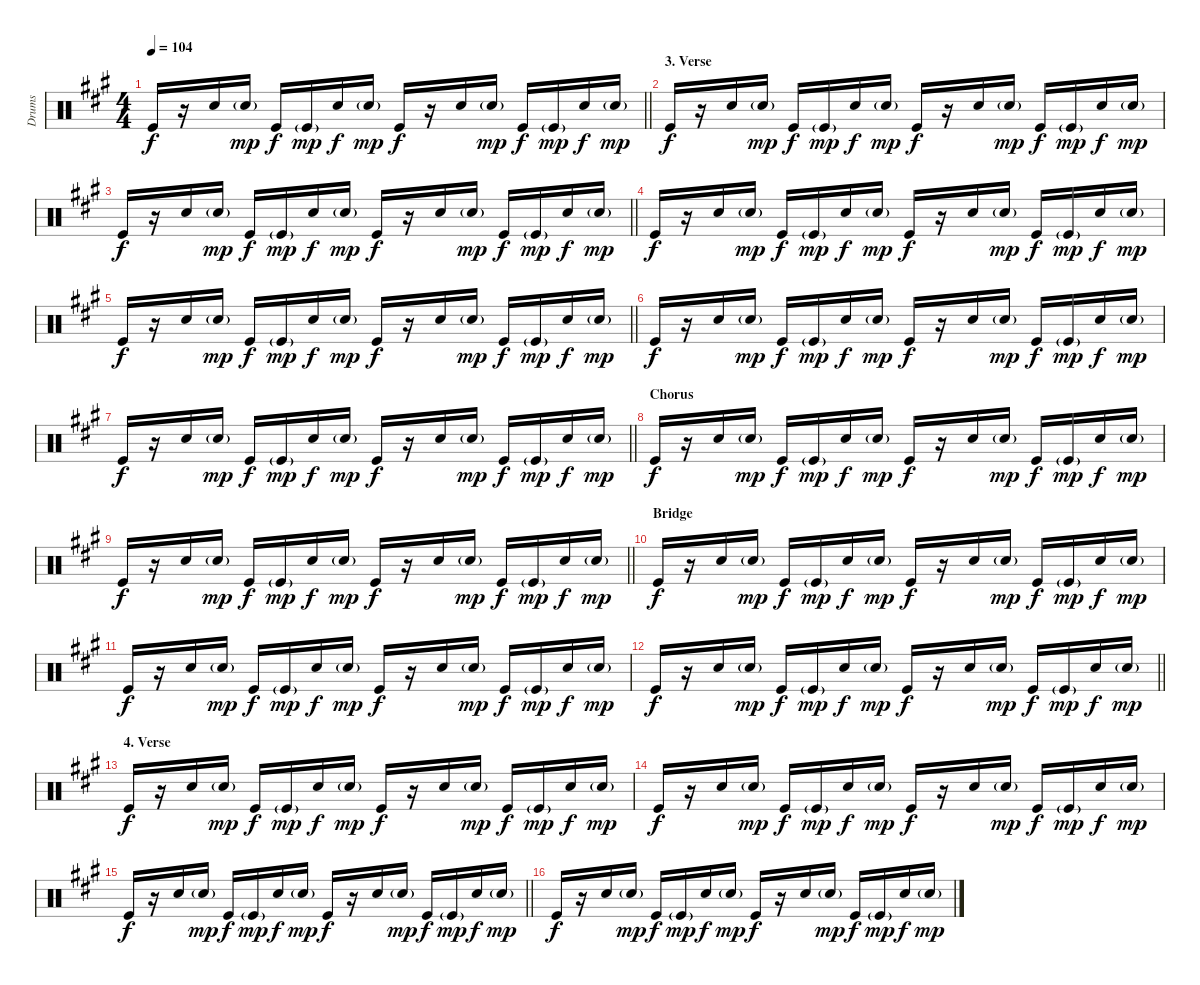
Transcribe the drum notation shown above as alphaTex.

\track ("Drums" "Drums") {instrument percussion}
\staff {score}
\articulation defaults
\ts (4 4)
\tempo 104
\clef neutral
\barLineRight lightlight
\ks a "Kick (hit)".16{dy f}
r.16 "Electric Snare (hit)".16 "Electric Snare (hit)"{g}.16{dy mp} "Kick (hit)".16{dy f} "Kick (hit)"{g}.16{dy mp} "Electric Snare (hit)".16{dy f} "Electric Snare (hit)"{g}.16{dy mp} "Kick (hit)".16{dy f} r.16 "Electric Snare (hit)".16 "Electric Snare (hit)"{g}.16{dy mp} "Kick (hit)".16{dy f} "Kick (hit)"{g}.16{dy mp} "Electric Snare (hit)".16{dy f} "Electric Snare (hit)"{g}.16{dy mp} |
\section ("" "3. Verse")
"Kick (hit)".16{dy f} r.16 "Electric Snare (hit)".16 "Electric Snare (hit)"{g}.16{dy mp} "Kick (hit)".16{dy f} "Kick (hit)"{g}.16{dy mp} "Electric Snare (hit)".16{dy f} "Electric Snare (hit)"{g}.16{dy mp} "Kick (hit)".16{dy f} r.16 "Electric Snare (hit)".16 "Electric Snare (hit)"{g}.16{dy mp} "Kick (hit)".16{dy f} "Kick (hit)"{g}.16{dy mp} "Electric Snare (hit)".16{dy f} "Electric Snare (hit)"{g}.16{dy mp} |
\barLineRight lightlight "Kick (hit)".16{dy f}
r.16 "Electric Snare (hit)".16 "Electric Snare (hit)"{g}.16{dy mp} "Kick (hit)".16{dy f} "Kick (hit)"{g}.16{dy mp} "Electric Snare (hit)".16{dy f} "Electric Snare (hit)"{g}.16{dy mp} "Kick (hit)".16{dy f} r.16 "Electric Snare (hit)".16 "Electric Snare (hit)"{g}.16{dy mp} "Kick (hit)".16{dy f} "Kick (hit)"{g}.16{dy mp} "Electric Snare (hit)".16{dy f} "Electric Snare (hit)"{g}.16{dy mp} |
"Kick (hit)".16{dy f} r.16 "Electric Snare (hit)".16 "Electric Snare (hit)"{g}.16{dy mp} "Kick (hit)".16{dy f} "Kick (hit)"{g}.16{dy mp} "Electric Snare (hit)".16{dy f} "Electric Snare (hit)"{g}.16{dy mp} "Kick (hit)".16{dy f} r.16 "Electric Snare (hit)".16 "Electric Snare (hit)"{g}.16{dy mp} "Kick (hit)".16{dy f} "Kick (hit)"{g}.16{dy mp} "Electric Snare (hit)".16{dy f} "Electric Snare (hit)"{g}.16{dy mp} |
\barLineRight lightlight "Kick (hit)".16{dy f}
r.16 "Electric Snare (hit)".16 "Electric Snare (hit)"{g}.16{dy mp} "Kick (hit)".16{dy f} "Kick (hit)"{g}.16{dy mp} "Electric Snare (hit)".16{dy f} "Electric Snare (hit)"{g}.16{dy mp} "Kick (hit)".16{dy f} r.16 "Electric Snare (hit)".16 "Electric Snare (hit)"{g}.16{dy mp} "Kick (hit)".16{dy f} "Kick (hit)"{g}.16{dy mp} "Electric Snare (hit)".16{dy f} "Electric Snare (hit)"{g}.16{dy mp} |
"Kick (hit)".16{dy f} r.16 "Electric Snare (hit)".16 "Electric Snare (hit)"{g}.16{dy mp} "Kick (hit)".16{dy f} "Kick (hit)"{g}.16{dy mp} "Electric Snare (hit)".16{dy f} "Electric Snare (hit)"{g}.16{dy mp} "Kick (hit)".16{dy f} r.16 "Electric Snare (hit)".16 "Electric Snare (hit)"{g}.16{dy mp} "Kick (hit)".16{dy f} "Kick (hit)"{g}.16{dy mp} "Electric Snare (hit)".16{dy f} "Electric Snare (hit)"{g}.16{dy mp} |
\barLineRight lightlight "Kick (hit)".16{dy f}
r.16 "Electric Snare (hit)".16 "Electric Snare (hit)"{g}.16{dy mp} "Kick (hit)".16{dy f} "Kick (hit)"{g}.16{dy mp} "Electric Snare (hit)".16{dy f} "Electric Snare (hit)"{g}.16{dy mp} "Kick (hit)".16{dy f} r.16 "Electric Snare (hit)".16 "Electric Snare (hit)"{g}.16{dy mp} "Kick (hit)".16{dy f} "Kick (hit)"{g}.16{dy mp} "Electric Snare (hit)".16{dy f} "Electric Snare (hit)"{g}.16{dy mp} |
\section ("" "Chorus")
"Kick (hit)".16{dy f} r.16 "Electric Snare (hit)".16 "Electric Snare (hit)"{g}.16{dy mp} "Kick (hit)".16{dy f} "Kick (hit)"{g}.16{dy mp} "Electric Snare (hit)".16{dy f} "Electric Snare (hit)"{g}.16{dy mp} "Kick (hit)".16{dy f} r.16 "Electric Snare (hit)".16 "Electric Snare (hit)"{g}.16{dy mp} "Kick (hit)".16{dy f} "Kick (hit)"{g}.16{dy mp} "Electric Snare (hit)".16{dy f} "Electric Snare (hit)"{g}.16{dy mp} |
\barLineRight lightlight "Kick (hit)".16{dy f}
r.16 "Electric Snare (hit)".16 "Electric Snare (hit)"{g}.16{dy mp} "Kick (hit)".16{dy f} "Kick (hit)"{g}.16{dy mp} "Electric Snare (hit)".16{dy f} "Electric Snare (hit)"{g}.16{dy mp} "Kick (hit)".16{dy f} r.16 "Electric Snare (hit)".16 "Electric Snare (hit)"{g}.16{dy mp} "Kick (hit)".16{dy f} "Kick (hit)"{g}.16{dy mp} "Electric Snare (hit)".16{dy f} "Electric Snare (hit)"{g}.16{dy mp} |
\section ("" "Bridge")
"Kick (hit)".16{dy f} r.16 "Electric Snare (hit)".16 "Electric Snare (hit)"{g}.16{dy mp} "Kick (hit)".16{dy f} "Kick (hit)"{g}.16{dy mp} "Electric Snare (hit)".16{dy f} "Electric Snare (hit)"{g}.16{dy mp} "Kick (hit)".16{dy f} r.16 "Electric Snare (hit)".16 "Electric Snare (hit)"{g}.16{dy mp} "Kick (hit)".16{dy f} "Kick (hit)"{g}.16{dy mp} "Electric Snare (hit)".16{dy f} "Electric Snare (hit)"{g}.16{dy mp} |
"Kick (hit)".16{dy f} r.16 "Electric Snare (hit)".16 "Electric Snare (hit)"{g}.16{dy mp} "Kick (hit)".16{dy f} "Kick (hit)"{g}.16{dy mp} "Electric Snare (hit)".16{dy f} "Electric Snare (hit)"{g}.16{dy mp} "Kick (hit)".16{dy f} r.16 "Electric Snare (hit)".16 "Electric Snare (hit)"{g}.16{dy mp} "Kick (hit)".16{dy f} "Kick (hit)"{g}.16{dy mp} "Electric Snare (hit)".16{dy f} "Electric Snare (hit)"{g}.16{dy mp} |
\barLineRight lightlight "Kick (hit)".16{dy f}
r.16 "Electric Snare (hit)".16 "Electric Snare (hit)"{g}.16{dy mp} "Kick (hit)".16{dy f} "Kick (hit)"{g}.16{dy mp} "Electric Snare (hit)".16{dy f} "Electric Snare (hit)"{g}.16{dy mp} "Kick (hit)".16{dy f} r.16 "Electric Snare (hit)".16 "Electric Snare (hit)"{g}.16{dy mp} "Kick (hit)".16{dy f} "Kick (hit)"{g}.16{dy mp} "Electric Snare (hit)".16{dy f} "Electric Snare (hit)"{g}.16{dy mp} |
\section ("" "4. Verse")
"Kick (hit)".16{dy f} r.16 "Electric Snare (hit)".16 "Electric Snare (hit)"{g}.16{dy mp} "Kick (hit)".16{dy f} "Kick (hit)"{g}.16{dy mp} "Electric Snare (hit)".16{dy f} "Electric Snare (hit)"{g}.16{dy mp} "Kick (hit)".16{dy f} r.16 "Electric Snare (hit)".16 "Electric Snare (hit)"{g}.16{dy mp} "Kick (hit)".16{dy f} "Kick (hit)"{g}.16{dy mp} "Electric Snare (hit)".16{dy f} "Electric Snare (hit)"{g}.16{dy mp} |
"Kick (hit)".16{dy f} r.16 "Electric Snare (hit)".16 "Electric Snare (hit)"{g}.16{dy mp} "Kick (hit)".16{dy f} "Kick (hit)"{g}.16{dy mp} "Electric Snare (hit)".16{dy f} "Electric Snare (hit)"{g}.16{dy mp} "Kick (hit)".16{dy f} r.16 "Electric Snare (hit)".16 "Electric Snare (hit)"{g}.16{dy mp} "Kick (hit)".16{dy f} "Kick (hit)"{g}.16{dy mp} "Electric Snare (hit)".16{dy f} "Electric Snare (hit)"{g}.16{dy mp} |
\barLineRight lightlight "Kick (hit)".16{dy f}
r.16 "Electric Snare (hit)".16 "Electric Snare (hit)"{g}.16{dy mp} "Kick (hit)".16{dy f} "Kick (hit)"{g}.16{dy mp} "Electric Snare (hit)".16{dy f} "Electric Snare (hit)"{g}.16{dy mp} "Kick (hit)".16{dy f} r.16 "Electric Snare (hit)".16 "Electric Snare (hit)"{g}.16{dy mp} "Kick (hit)".16{dy f} "Kick (hit)"{g}.16{dy mp} "Electric Snare (hit)".16{dy f} "Electric Snare (hit)"{g}.16{dy mp} |
"Kick (hit)".16{dy f} r.16 "Electric Snare (hit)".16 "Electric Snare (hit)"{g}.16{dy mp} "Kick (hit)".16{dy f} "Kick (hit)"{g}.16{dy mp} "Electric Snare (hit)".16{dy f} "Electric Snare (hit)"{g}.16{dy mp} "Kick (hit)".16{dy f} r.16 "Electric Snare (hit)".16 "Electric Snare (hit)"{g}.16{dy mp} "Kick (hit)".16{dy f} "Kick (hit)"{g}.16{dy mp} "Electric Snare (hit)".16{dy f} "Electric Snare (hit)"{g}.16{dy mp}
